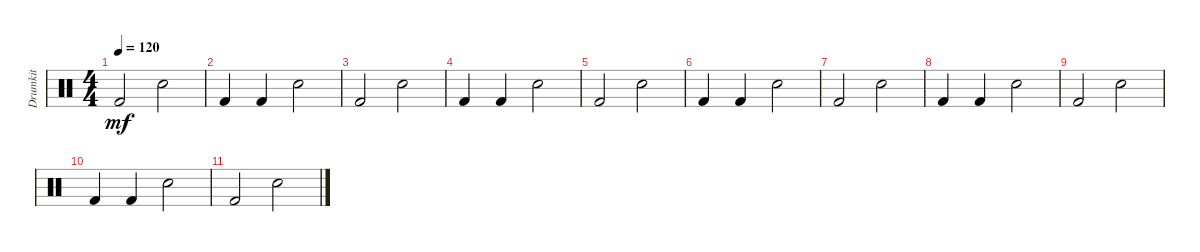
\track ("Drumkit" "Drumkit") {instrument percussion}
\staff {score}
\articulation defaults
\ts (4 4)
\tempo 120
\clef neutral
\ks c "Kick (hit) 2".2{dy mf} "Snare (hit) 2".2
|
"Kick (hit) 2".4 "Kick (hit) 2".4 "Snare (hit) 2".2 |
"Kick (hit) 2".2 "Snare (hit) 2".2 |
"Kick (hit) 2".4 "Kick (hit) 2".4 "Snare (hit) 2".2 |
"Kick (hit) 2".2 "Snare (hit) 2".2 |
"Kick (hit) 2".4 "Kick (hit) 2".4 "Snare (hit) 2".2 |
"Kick (hit) 2".2 "Snare (hit) 2".2 |
"Kick (hit) 2".4 "Kick (hit) 2".4 "Snare (hit) 2".2 |
"Kick (hit) 2".2 "Snare (hit) 2".2 |
"Kick (hit) 2".4 "Kick (hit) 2".4 "Snare (hit) 2".2 |
"Kick (hit) 2".2 "Snare (hit) 2".2
